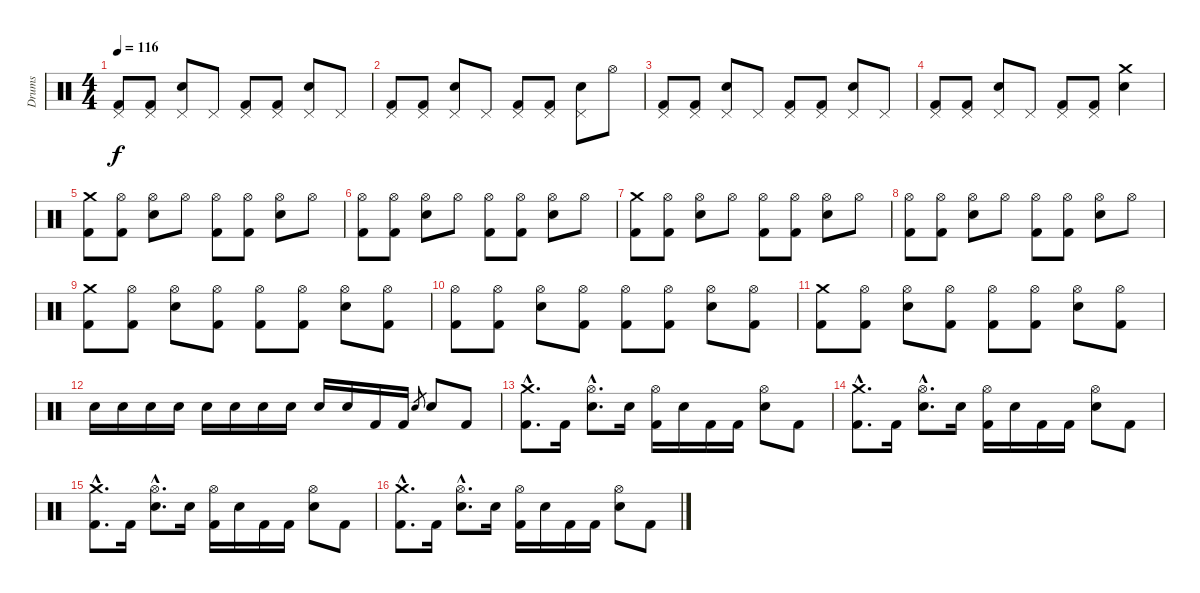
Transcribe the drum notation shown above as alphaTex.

\track ("Drums" "Drums") {instrument percussion}
\staff {score}
\articulation defaults
\ts (4 4)
\tempo 116
\clef neutral
\ks c
("Pedal Hi-Hat (hit)" "Kick (hit) 2").8{dy f} ("Pedal Hi-Hat (hit)" "Kick (hit) 2").8 ("Pedal Hi-Hat (hit)" "Electric Snare (hit)").8 "Pedal Hi-Hat (hit)".8 ("Pedal Hi-Hat (hit)" "Kick (hit) 2").8 ("Pedal Hi-Hat (hit)" "Kick (hit) 2").8 ("Pedal Hi-Hat (hit)" "Electric Snare (hit)").8 "Pedal Hi-Hat (hit)".8 |
("Pedal Hi-Hat (hit)" "Kick (hit) 2").8 ("Pedal Hi-Hat (hit)" "Kick (hit) 2").8 ("Pedal Hi-Hat (hit)" "Electric Snare (hit)").8 "Pedal Hi-Hat (hit)".8 ("Pedal Hi-Hat (hit)" "Kick (hit) 2").8 ("Pedal Hi-Hat (hit)" "Kick (hit) 2").8 ("Pedal Hi-Hat (hit)" "Electric Snare (hit)").8 "Hi-Hat (open)".8 |
("Pedal Hi-Hat (hit)" "Kick (hit) 2").8 ("Pedal Hi-Hat (hit)" "Kick (hit) 2").8 ("Pedal Hi-Hat (hit)" "Electric Snare (hit)").8 "Pedal Hi-Hat (hit)".8 ("Pedal Hi-Hat (hit)" "Kick (hit) 2").8 ("Pedal Hi-Hat (hit)" "Kick (hit) 2").8 ("Pedal Hi-Hat (hit)" "Electric Snare (hit)").8 "Pedal Hi-Hat (hit)".8 |
("Pedal Hi-Hat (hit)" "Kick (hit) 2").8 ("Pedal Hi-Hat (hit)" "Kick (hit) 2").8 ("Pedal Hi-Hat (hit)" "Electric Snare (hit)").8 "Pedal Hi-Hat (hit)".8 ("Pedal Hi-Hat (hit)" "Kick (hit) 2").8 ("Pedal Hi-Hat (hit)" "Kick (hit) 2").8 ("Crash medium (hit)" "Electric Snare (hit)").4 |
("Crash medium (hit)" "Kick (hit) 2").8 ("Hi-Hat (open)" "Kick (hit) 2").8 ("Hi-Hat (open)" "Electric Snare (hit)").8 "Hi-Hat (open)".8 ("Hi-Hat (open)" "Kick (hit) 2").8 ("Hi-Hat (open)" "Kick (hit) 2").8 ("Hi-Hat (open)" "Electric Snare (hit)").8 "Hi-Hat (open)".8 |
("Hi-Hat (open)" "Kick (hit) 2").8 ("Hi-Hat (open)" "Kick (hit) 2").8 ("Hi-Hat (open)" "Electric Snare (hit)").8 "Hi-Hat (open)".8 ("Hi-Hat (open)" "Kick (hit) 2").8 ("Hi-Hat (open)" "Kick (hit) 2").8 ("Hi-Hat (open)" "Electric Snare (hit)").8 "Hi-Hat (open)".8 |
("Crash medium (hit)" "Kick (hit) 2").8 ("Hi-Hat (open)" "Kick (hit) 2").8 ("Hi-Hat (open)" "Electric Snare (hit)").8 "Hi-Hat (open)".8 ("Hi-Hat (open)" "Kick (hit) 2").8 ("Hi-Hat (open)" "Kick (hit) 2").8 ("Hi-Hat (open)" "Electric Snare (hit)").8 "Hi-Hat (open)".8 |
("Hi-Hat (open)" "Kick (hit) 2").8 ("Hi-Hat (open)" "Kick (hit) 2").8 ("Hi-Hat (open)" "Electric Snare (hit)").8 "Hi-Hat (open)".8 ("Hi-Hat (open)" "Kick (hit) 2").8 ("Hi-Hat (open)" "Kick (hit) 2").8 ("Hi-Hat (open)" "Electric Snare (hit)").8 "Hi-Hat (open)".8 |
("Crash medium (hit)" "Kick (hit) 2").8 ("Hi-Hat (open)" "Kick (hit) 2").8 ("Hi-Hat (open)" "Electric Snare (hit)").8 ("Hi-Hat (open)" "Kick (hit) 2").8 ("Hi-Hat (open)" "Kick (hit) 2").8 ("Hi-Hat (open)" "Kick (hit) 2").8 ("Hi-Hat (open)" "Electric Snare (hit)").8 ("Hi-Hat (open)" "Kick (hit) 2").8 |
("Hi-Hat (open)" "Kick (hit) 2").8 ("Hi-Hat (open)" "Kick (hit) 2").8 ("Hi-Hat (open)" "Electric Snare (hit)").8 ("Hi-Hat (open)" "Kick (hit) 2").8 ("Hi-Hat (open)" "Kick (hit) 2").8 ("Hi-Hat (open)" "Kick (hit) 2").8 ("Hi-Hat (open)" "Electric Snare (hit)").8 ("Hi-Hat (open)" "Kick (hit) 2").8 |
("Crash medium (hit)" "Kick (hit) 2").8 ("Hi-Hat (open)" "Kick (hit) 2").8 ("Hi-Hat (open)" "Electric Snare (hit)").8 ("Hi-Hat (open)" "Kick (hit) 2").8 ("Hi-Hat (open)" "Kick (hit) 2").8 ("Hi-Hat (open)" "Kick (hit) 2").8 ("Hi-Hat (open)" "Electric Snare (hit)").8 ("Hi-Hat (open)" "Kick (hit) 2").8 |
"Electric Snare (hit)".16 "Electric Snare (hit)".16 "Electric Snare (hit)".16 "Electric Snare (hit)".16 "Electric Snare (hit)".16 "Electric Snare (hit)".16 "Electric Snare (hit)".16 "Electric Snare (hit)".16 "Electric Snare (hit)".16 "Electric Snare (hit)".16 "Kick (hit) 2".16 "Kick (hit) 2".16 "Electric Snare (hit)".8{gr} "Electric Snare (hit)".8 "Kick (hit) 2".8 |
("Crash medium (hit)"{hac} "Kick (hit) 2"{hac}).8{d} "Kick (hit) 2".16 ("Hi-Hat (open)"{hac} "Electric Snare (hit)"{hac}).8{d} "Electric Snare (hit)".16 ("Hi-Hat (open)" "Kick (hit) 2").16 "Electric Snare (hit)".16 "Kick (hit) 2".16 "Kick (hit) 2".16 ("Hi-Hat (open)" "Electric Snare (hit)").8 "Kick (hit) 2".8 |
("Crash medium (hit)"{hac} "Kick (hit) 2"{hac}).8{d} "Kick (hit) 2".16 ("Hi-Hat (open)"{hac} "Electric Snare (hit)"{hac}).8{d} "Electric Snare (hit)".16 ("Hi-Hat (open)" "Kick (hit) 2").16 "Electric Snare (hit)".16 "Kick (hit) 2".16 "Kick (hit) 2".16 ("Hi-Hat (open)" "Electric Snare (hit)").8 "Kick (hit) 2".8 |
("Crash medium (hit)"{hac} "Kick (hit) 2"{hac}).8{d} "Kick (hit) 2".16 ("Hi-Hat (open)"{hac} "Electric Snare (hit)"{hac}).8{d} "Electric Snare (hit)".16 ("Hi-Hat (open)" "Kick (hit) 2").16 "Electric Snare (hit)".16 "Kick (hit) 2".16 "Kick (hit) 2".16 ("Hi-Hat (open)" "Electric Snare (hit)").8 "Kick (hit) 2".8 |
("Crash medium (hit)"{hac} "Kick (hit) 2"{hac}).8{d} "Kick (hit) 2".16 ("Hi-Hat (open)"{hac} "Electric Snare (hit)"{hac}).8{d} "Electric Snare (hit)".16 ("Hi-Hat (open)" "Kick (hit) 2").16 "Electric Snare (hit)".16 "Kick (hit) 2".16 "Kick (hit) 2".16 ("Hi-Hat (open)" "Electric Snare (hit)").8 "Kick (hit) 2".8
